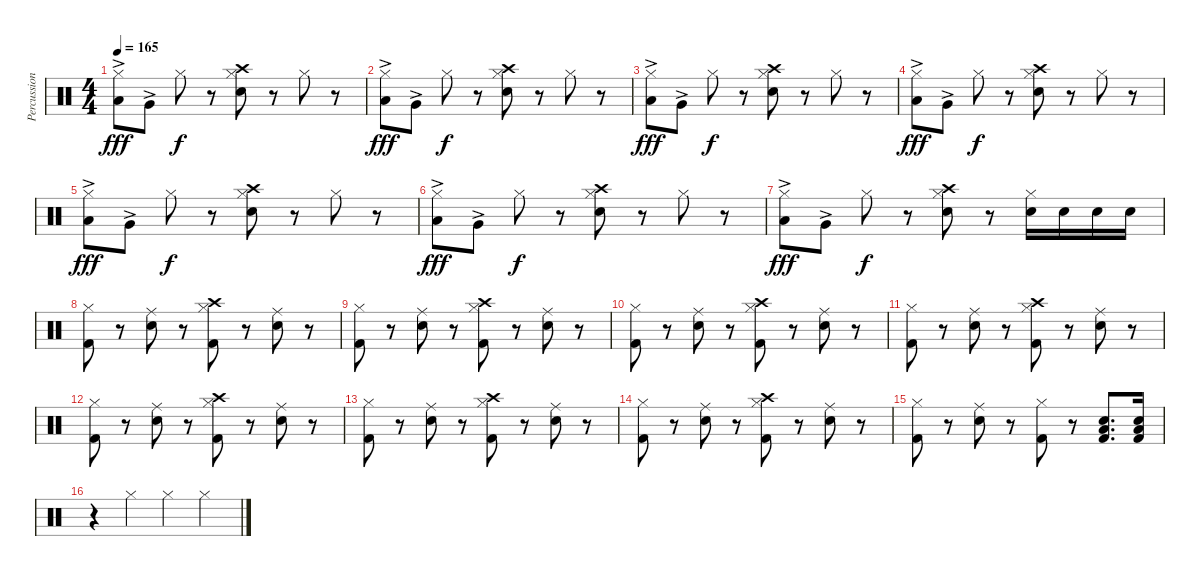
\track ("Percussions" "Percussion") {instrument percussion}
\staff {score}
\articulation defaults
\ts (4 4)
\tempo 165
\clef neutral
\ks c
("Low Tom (hit)"{ac} "Hi-Hat (closed)").8{dy fff} "Very Low Tom (hit)"{ac}.8 "Hi-Hat (closed)".8{dy f} r.8 ("Crash high (hit)" "Electric Snare (hit)" "Hi-Hat (closed)").8 r.8 "Hi-Hat (closed)".8 r.8 |
("Low Tom (hit)"{ac} "Hi-Hat (closed)").8{dy fff} "Very Low Tom (hit)"{ac}.8 "Hi-Hat (closed)".8{dy f} r.8 ("Crash high (hit)" "Electric Snare (hit)" "Hi-Hat (closed)").8 r.8 "Hi-Hat (closed)".8 r.8 |
("Low Tom (hit)"{ac} "Hi-Hat (closed)").8{dy fff} "Very Low Tom (hit)"{ac}.8 "Hi-Hat (closed)".8{dy f} r.8 ("Crash high (hit)" "Electric Snare (hit)" "Hi-Hat (closed)").8 r.8 "Hi-Hat (closed)".8 r.8 |
("Low Tom (hit)"{ac} "Hi-Hat (closed)").8{dy fff} "Very Low Tom (hit)"{ac}.8 "Hi-Hat (closed)".8{dy f} r.8 ("Crash high (hit)" "Electric Snare (hit)" "Hi-Hat (closed)").8 r.8 "Hi-Hat (closed)".8 r.8 |
("Low Tom (hit)"{ac} "Hi-Hat (closed)").8{dy fff} "Very Low Tom (hit)"{ac}.8 "Hi-Hat (closed)".8{dy f} r.8 ("Crash high (hit)" "Electric Snare (hit)" "Hi-Hat (closed)").8 r.8 "Hi-Hat (closed)".8 r.8 |
("Low Tom (hit)"{ac} "Hi-Hat (closed)").8{dy fff} "Very Low Tom (hit)"{ac}.8 "Hi-Hat (closed)".8{dy f} r.8 ("Crash high (hit)" "Electric Snare (hit)" "Hi-Hat (closed)").8 r.8 "Hi-Hat (closed)".8 r.8 |
("Low Tom (hit)"{ac} "Hi-Hat (closed)").8{dy fff} "Very Low Tom (hit)"{ac}.8 "Hi-Hat (closed)".8{dy f} r.8 ("Crash high (hit)" "Electric Snare (hit)" "Hi-Hat (closed)").8 r.8 ("Electric Snare (hit)" "Hi-Hat (closed)").16 "Electric Snare (hit)".16 "Electric Snare (hit)".16 "Electric Snare (hit)".16 |
("Kick (hit) 2" "Hi-Hat (closed)").8 r.8 ("Electric Snare (hit)" "Ride (middle)").8 r.8 ("Kick (hit) 2" "Crash high (hit)" "Hi-Hat (closed)").8 r.8 ("Electric Snare (hit)" "Ride (middle)").8 r.8 |
("Kick (hit) 2" "Hi-Hat (closed)").8 r.8 ("Electric Snare (hit)" "Ride (middle)").8 r.8 ("Kick (hit) 2" "Crash high (hit)" "Hi-Hat (closed)").8 r.8 ("Electric Snare (hit)" "Ride (middle)").8 r.8 |
("Kick (hit) 2" "Hi-Hat (closed)").8 r.8 ("Electric Snare (hit)" "Ride (middle)").8 r.8 ("Kick (hit) 2" "Crash high (hit)" "Hi-Hat (closed)").8 r.8 ("Electric Snare (hit)" "Ride (middle)").8 r.8 |
("Kick (hit) 2" "Hi-Hat (closed)").8 r.8 ("Electric Snare (hit)" "Ride (middle)").8 r.8 ("Kick (hit) 2" "Crash high (hit)" "Hi-Hat (closed)").8 r.8 ("Electric Snare (hit)" "Ride (middle)").8 r.8 |
("Kick (hit) 2" "Hi-Hat (closed)").8 r.8 ("Electric Snare (hit)" "Ride (middle)").8 r.8 ("Kick (hit) 2" "Crash high (hit)" "Hi-Hat (closed)").8 r.8 ("Electric Snare (hit)" "Ride (middle)").8 r.8 |
("Kick (hit) 2" "Hi-Hat (closed)").8 r.8 ("Electric Snare (hit)" "Ride (middle)").8 r.8 ("Kick (hit) 2" "Crash high (hit)" "Hi-Hat (closed)").8 r.8 ("Electric Snare (hit)" "Ride (middle)").8 r.8 |
("Kick (hit) 2" "Hi-Hat (closed)").8 r.8 ("Electric Snare (hit)" "Ride (middle)").8 r.8 ("Kick (hit) 2" "Crash high (hit)" "Hi-Hat (closed)").8 r.8 ("Electric Snare (hit)" "Ride (middle)").8 r.8 |
("Kick (hit) 2" "Hi-Hat (closed)").8 r.8 ("Electric Snare (hit)" "Ride (middle)").8 r.8 ("Kick (hit) 2" "Hi-Hat (closed)").8 r.8 ("Electric Snare (hit)" "Low Tom (hit)" "Kick (hit) 2").8{d} ("Electric Snare (hit)" "Low Tom (hit)" "Kick (hit) 2").16 |
r.4 "Hi-Hat (closed)".4 "Hi-Hat (closed)".4 "Hi-Hat (closed)".4
